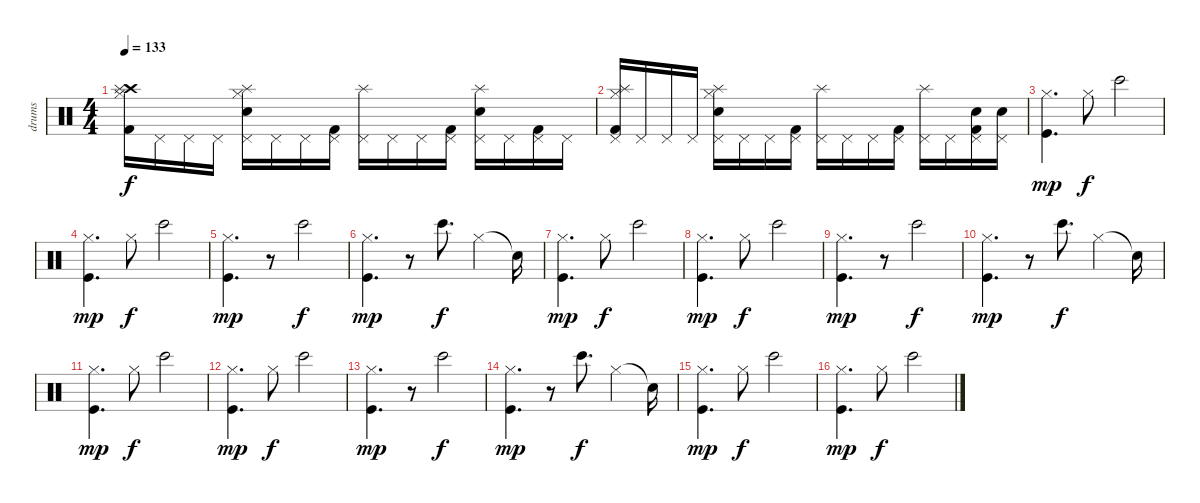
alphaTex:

\track ("drums" "drums") {instrument percussion}
\staff {score}
\articulation defaults
\ts (4 4)
\tempo 133
\clef neutral
\ks c
("Kick (hit) 2" "Hi-Hat (closed)" "Crash high (hit)" "Splash (hit)").16{dy f} "Pedal Hi-Hat (hit)".16 "Pedal Hi-Hat (hit)".16 "Pedal Hi-Hat (hit)".16 ("Snare (hit) 2" "Hi-Hat (closed)" "Pedal Hi-Hat (hit)" "Splash (hit)").16 "Pedal Hi-Hat (hit)".16 "Pedal Hi-Hat (hit)".16 ("Kick (hit) 2" "Pedal Hi-Hat (hit)").16 ("Pedal Hi-Hat (hit)" "Splash (hit)").16 "Pedal Hi-Hat (hit)".16 "Pedal Hi-Hat (hit)".16 ("Kick (hit) 2" "Pedal Hi-Hat (hit)").16 ("Snare (hit) 2" "Pedal Hi-Hat (hit)" "Splash (hit)").16 "Pedal Hi-Hat (hit)".16 ("Kick (hit) 2" "Pedal Hi-Hat (hit)").16 "Pedal Hi-Hat (hit)".16 |
("Kick (hit) 2" "Hi-Hat (closed)" "Pedal Hi-Hat (hit)" "Splash (hit)").16 "Pedal Hi-Hat (hit)".16 "Pedal Hi-Hat (hit)".16 "Pedal Hi-Hat (hit)".16 ("Snare (hit) 2" "Hi-Hat (closed)" "Pedal Hi-Hat (hit)" "Splash (hit)").16 "Pedal Hi-Hat (hit)".16 "Pedal Hi-Hat (hit)".16 ("Kick (hit) 2" "Pedal Hi-Hat (hit)").16 ("Pedal Hi-Hat (hit)" "Splash (hit)").16 "Pedal Hi-Hat (hit)".16 "Pedal Hi-Hat (hit)".16 ("Kick (hit) 2" "Pedal Hi-Hat (hit)").16 ("Pedal Hi-Hat (hit)" "Splash (hit)").16 "Pedal Hi-Hat (hit)".16 ("Snare (hit) 2" "Kick (hit) 2" "Pedal Hi-Hat (hit)").16 ("Snare (hit) 2" "Pedal Hi-Hat (hit)").16 |
("Kick (hit)" "Hi-Hat (closed)").4{d dy mp} "Hi-Hat (closed)".8{dy f} "Bongo High (hit)".2 |
("Kick (hit)" "Hi-Hat (closed)").4{d dy mp} "Hi-Hat (closed)".8{dy f} "Bongo High (hit)".2 |
("Kick (hit)" "Hi-Hat (closed)").4{d dy mp} r.8 "Bongo High (hit)".2{dy f} |
("Kick (hit)" "Hi-Hat (closed)").4{d dy mp} r.8 "Bongo High (hit)".8{d dy f} "Hi-Hat (closed)".4 "Snare (hit)"{t}.16 |
("Kick (hit)" "Hi-Hat (closed)").4{d dy mp} "Hi-Hat (closed)".8{dy f} "Bongo High (hit)".2 |
("Kick (hit)" "Hi-Hat (closed)").4{d dy mp} "Hi-Hat (closed)".8{dy f} "Bongo High (hit)".2 |
("Kick (hit)" "Hi-Hat (closed)").4{d dy mp} r.8 "Bongo High (hit)".2{dy f} |
("Kick (hit)" "Hi-Hat (closed)").4{d dy mp} r.8 "Bongo High (hit)".8{d dy f} "Hi-Hat (closed)".4 "Snare (hit)"{t}.16 |
("Kick (hit)" "Hi-Hat (closed)").4{d dy mp} "Hi-Hat (closed)".8{dy f} "Bongo High (hit)".2 |
("Kick (hit)" "Hi-Hat (closed)").4{d dy mp} "Hi-Hat (closed)".8{dy f} "Bongo High (hit)".2 |
("Kick (hit)" "Hi-Hat (closed)").4{d dy mp} r.8 "Bongo High (hit)".2{dy f} |
("Kick (hit)" "Hi-Hat (closed)").4{d dy mp} r.8 "Bongo High (hit)".8{d dy f} "Hi-Hat (closed)".4 "Snare (hit)"{t}.16 |
("Kick (hit)" "Hi-Hat (closed)").4{d dy mp} "Hi-Hat (closed)".8{dy f} "Bongo High (hit)".2 |
("Kick (hit)" "Hi-Hat (closed)").4{d dy mp} "Hi-Hat (closed)".8{dy f} "Bongo High (hit)".2
